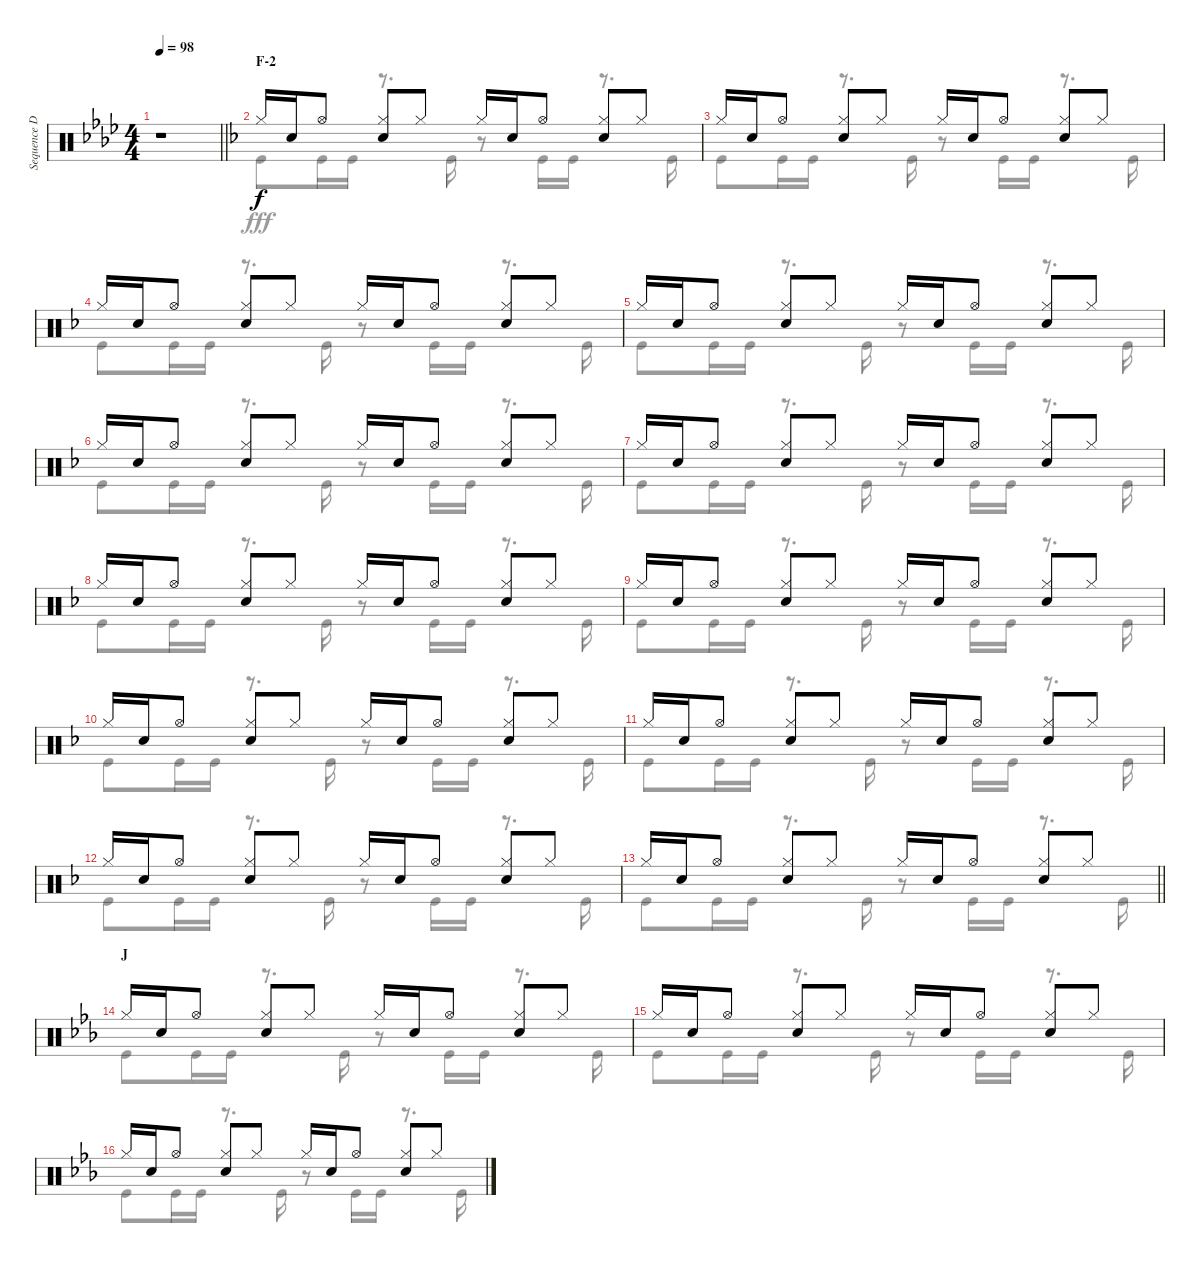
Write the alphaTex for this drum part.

\track ("Sequence Drums II" "Sequence D") {instrument percussion}
\staff {score}
\articulation defaults
\voice
\ts (4 4)
\tempo 98
\clef neutral
\barLineRight lightlight
\ks ab
r.1{dy f} |
\section ("" "F-2")
\ks f "Hi-Hat (closed)".16 "Snare (hit) 2".16 "Hi-Hat (open)".8
("Hi-Hat (closed)" "Snare (hit) 2").8 "Hi-Hat (closed)".8 "Hi-Hat (closed)".16 "Snare (hit) 2".16 "Hi-Hat (open)".8 ("Hi-Hat (closed)" "Snare (hit) 2").8 "Hi-Hat (closed)".8 |
"Hi-Hat (closed)".16 "Snare (hit) 2".16 "Hi-Hat (open)".8 ("Hi-Hat (closed)" "Snare (hit) 2").8 "Hi-Hat (closed)".8 "Hi-Hat (closed)".16 "Snare (hit) 2".16 "Hi-Hat (open)".8 ("Hi-Hat (closed)" "Snare (hit) 2").8 "Hi-Hat (closed)".8 |
"Hi-Hat (closed)".16 "Snare (hit) 2".16 "Hi-Hat (open)".8 ("Hi-Hat (closed)" "Snare (hit) 2").8 "Hi-Hat (closed)".8 "Hi-Hat (closed)".16 "Snare (hit) 2".16 "Hi-Hat (open)".8 ("Hi-Hat (closed)" "Snare (hit) 2").8 "Hi-Hat (closed)".8 |
"Hi-Hat (closed)".16 "Snare (hit) 2".16 "Hi-Hat (open)".8 ("Hi-Hat (closed)" "Snare (hit) 2").8 "Hi-Hat (closed)".8 "Hi-Hat (closed)".16 "Snare (hit) 2".16 "Hi-Hat (open)".8 ("Hi-Hat (closed)" "Snare (hit) 2").8 "Hi-Hat (closed)".8 |
"Hi-Hat (closed)".16 "Snare (hit) 2".16 "Hi-Hat (open)".8 ("Hi-Hat (closed)" "Snare (hit) 2").8 "Hi-Hat (closed)".8 "Hi-Hat (closed)".16 "Snare (hit) 2".16 "Hi-Hat (open)".8 ("Hi-Hat (closed)" "Snare (hit) 2").8 "Hi-Hat (closed)".8 |
"Hi-Hat (closed)".16 "Snare (hit) 2".16 "Hi-Hat (open)".8 ("Hi-Hat (closed)" "Snare (hit) 2").8 "Hi-Hat (closed)".8 "Hi-Hat (closed)".16 "Snare (hit) 2".16 "Hi-Hat (open)".8 ("Hi-Hat (closed)" "Snare (hit) 2").8 "Hi-Hat (closed)".8 |
"Hi-Hat (closed)".16 "Snare (hit) 2".16 "Hi-Hat (open)".8 ("Hi-Hat (closed)" "Snare (hit) 2").8 "Hi-Hat (closed)".8 "Hi-Hat (closed)".16 "Snare (hit) 2".16 "Hi-Hat (open)".8 ("Hi-Hat (closed)" "Snare (hit) 2").8 "Hi-Hat (closed)".8 |
"Hi-Hat (closed)".16 "Snare (hit) 2".16 "Hi-Hat (open)".8 ("Hi-Hat (closed)" "Snare (hit) 2").8 "Hi-Hat (closed)".8 "Hi-Hat (closed)".16 "Snare (hit) 2".16 "Hi-Hat (open)".8 ("Hi-Hat (closed)" "Snare (hit) 2").8 "Hi-Hat (closed)".8 |
"Hi-Hat (closed)".16 "Snare (hit) 2".16 "Hi-Hat (open)".8 ("Hi-Hat (closed)" "Snare (hit) 2").8 "Hi-Hat (closed)".8 "Hi-Hat (closed)".16 "Snare (hit) 2".16 "Hi-Hat (open)".8 ("Hi-Hat (closed)" "Snare (hit) 2").8 "Hi-Hat (closed)".8 |
"Hi-Hat (closed)".16 "Snare (hit) 2".16 "Hi-Hat (open)".8 ("Hi-Hat (closed)" "Snare (hit) 2").8 "Hi-Hat (closed)".8 "Hi-Hat (closed)".16 "Snare (hit) 2".16 "Hi-Hat (open)".8 ("Hi-Hat (closed)" "Snare (hit) 2").8 "Hi-Hat (closed)".8 |
"Hi-Hat (closed)".16 "Snare (hit) 2".16 "Hi-Hat (open)".8 ("Hi-Hat (closed)" "Snare (hit) 2").8 "Hi-Hat (closed)".8 "Hi-Hat (closed)".16 "Snare (hit) 2".16 "Hi-Hat (open)".8 ("Hi-Hat (closed)" "Snare (hit) 2").8 "Hi-Hat (closed)".8 |
\barLineRight lightlight "Hi-Hat (closed)".16 "Snare (hit) 2".16 "Hi-Hat (open)".8
("Hi-Hat (closed)" "Snare (hit) 2").8 "Hi-Hat (closed)".8 "Hi-Hat (closed)".16 "Snare (hit) 2".16 "Hi-Hat (open)".8 ("Hi-Hat (closed)" "Snare (hit) 2").8 "Hi-Hat (closed)".8 |
\section ("" "J")
\ks eb "Hi-Hat (closed)".16 "Snare (hit) 2".16 "Hi-Hat (open)".8
("Hi-Hat (closed)" "Snare (hit) 2").8 "Hi-Hat (closed)".8 "Hi-Hat (closed)".16 "Snare (hit) 2".16 "Hi-Hat (open)".8 ("Hi-Hat (closed)" "Snare (hit) 2").8 "Hi-Hat (closed)".8 |
"Hi-Hat (closed)".16 "Snare (hit) 2".16 "Hi-Hat (open)".8 ("Hi-Hat (closed)" "Snare (hit) 2").8 "Hi-Hat (closed)".8 "Hi-Hat (closed)".16 "Snare (hit) 2".16 "Hi-Hat (open)".8 ("Hi-Hat (closed)" "Snare (hit) 2").8 "Hi-Hat (closed)".8 |
"Hi-Hat (closed)".16 "Snare (hit) 2".16 "Hi-Hat (open)".8 ("Hi-Hat (closed)" "Snare (hit) 2").8 "Hi-Hat (closed)".8 "Hi-Hat (closed)".16 "Snare (hit) 2".16 "Hi-Hat (open)".8 ("Hi-Hat (closed)" "Snare (hit) 2").8 "Hi-Hat (closed)".8
\voice
\clef neutral
\ottava regular
\simile none
\barLineRight lightlight
\ks ab
r.1{dy fff} |
\ks f "Kick (hit)".8 "Kick (hit)".16 "Kick (hit)".16
r.8{d} "Kick (hit)".16 r.8 "Kick (hit)".16 "Kick (hit)".16 r.8{d} "Kick (hit)".16 |
"Kick (hit)".8 "Kick (hit)".16 "Kick (hit)".16 r.8{d} "Kick (hit)".16 r.8 "Kick (hit)".16 "Kick (hit)".16 r.8{d} "Kick (hit)".16 |
"Kick (hit)".8 "Kick (hit)".16 "Kick (hit)".16 r.8{d} "Kick (hit)".16 r.8 "Kick (hit)".16 "Kick (hit)".16 r.8{d} "Kick (hit)".16 |
"Kick (hit)".8 "Kick (hit)".16 "Kick (hit)".16 r.8{d} "Kick (hit)".16 r.8 "Kick (hit)".16 "Kick (hit)".16 r.8{d} "Kick (hit)".16 |
"Kick (hit)".8 "Kick (hit)".16 "Kick (hit)".16 r.8{d} "Kick (hit)".16 r.8 "Kick (hit)".16 "Kick (hit)".16 r.8{d} "Kick (hit)".16 |
"Kick (hit)".8 "Kick (hit)".16 "Kick (hit)".16 r.8{d} "Kick (hit)".16 r.8 "Kick (hit)".16 "Kick (hit)".16 r.8{d} "Kick (hit)".16 |
"Kick (hit)".8 "Kick (hit)".16 "Kick (hit)".16 r.8{d} "Kick (hit)".16 r.8 "Kick (hit)".16 "Kick (hit)".16 r.8{d} "Kick (hit)".16 |
"Kick (hit)".8 "Kick (hit)".16 "Kick (hit)".16 r.8{d} "Kick (hit)".16 r.8 "Kick (hit)".16 "Kick (hit)".16 r.8{d} "Kick (hit)".16 |
"Kick (hit)".8 "Kick (hit)".16 "Kick (hit)".16 r.8{d} "Kick (hit)".16 r.8 "Kick (hit)".16 "Kick (hit)".16 r.8{d} "Kick (hit)".16 |
"Kick (hit)".8 "Kick (hit)".16 "Kick (hit)".16 r.8{d} "Kick (hit)".16 r.8 "Kick (hit)".16 "Kick (hit)".16 r.8{d} "Kick (hit)".16 |
"Kick (hit)".8 "Kick (hit)".16 "Kick (hit)".16 r.8{d} "Kick (hit)".16 r.8 "Kick (hit)".16 "Kick (hit)".16 r.8{d} "Kick (hit)".16 |
\barLineRight lightlight "Kick (hit)".8 "Kick (hit)".16 "Kick (hit)".16
r.8{d} "Kick (hit)".16 r.8 "Kick (hit)".16 "Kick (hit)".16 r.8{d} "Kick (hit)".16 |
\ks eb "Kick (hit)".8 "Kick (hit)".16 "Kick (hit)".16
r.8{d} "Kick (hit)".16 r.8 "Kick (hit)".16 "Kick (hit)".16 r.8{d} "Kick (hit)".16 |
"Kick (hit)".8 "Kick (hit)".16 "Kick (hit)".16 r.8{d} "Kick (hit)".16 r.8 "Kick (hit)".16 "Kick (hit)".16 r.8{d} "Kick (hit)".16 |
"Kick (hit)".8 "Kick (hit)".16 "Kick (hit)".16 r.8{d} "Kick (hit)".16 r.8 "Kick (hit)".16 "Kick (hit)".16 r.8{d} "Kick (hit)".16
